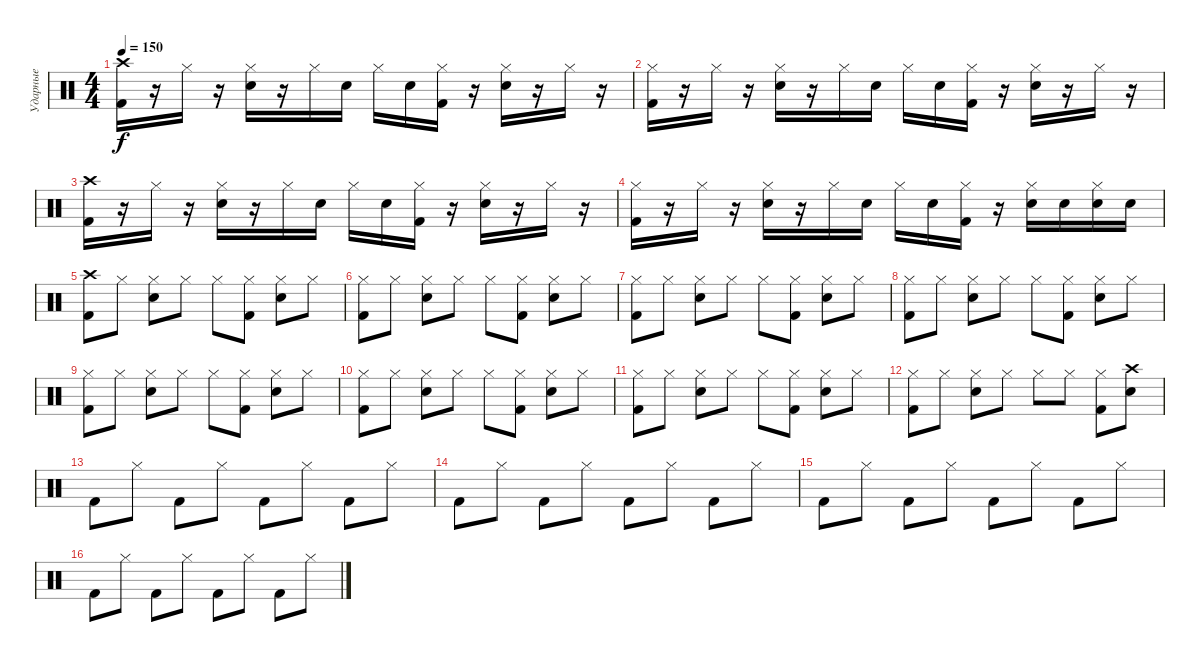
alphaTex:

\track ("Ударные" "Ударные") {instrument percussion}
\staff {score}
\articulation defaults
\ts (4 4)
\tempo 150
\clef neutral
\ks c
("Kick (hit) 2" "Crash high (hit)").16{dy f} r.16 "Hi-Hat (closed)".16 r.16 ("Electric Snare (hit)" "Hi-Hat (closed)").16 r.16 "Hi-Hat (closed)".16 "Electric Snare (hit)".16 "Hi-Hat (closed)".16 "Electric Snare (hit)".16 ("Kick (hit) 2" "Hi-Hat (closed)").16 r.16 ("Electric Snare (hit)" "Hi-Hat (closed)").16 r.16 "Hi-Hat (closed)".16 r.16 |
("Kick (hit) 2" "Hi-Hat (closed)").16 r.16 "Hi-Hat (closed)".16 r.16 ("Electric Snare (hit)" "Hi-Hat (closed)").16 r.16 "Hi-Hat (closed)".16 "Electric Snare (hit)".16 "Hi-Hat (closed)".16 "Electric Snare (hit)".16 ("Kick (hit) 2" "Hi-Hat (closed)").16 r.16 ("Electric Snare (hit)" "Hi-Hat (closed)").16 r.16 "Hi-Hat (closed)".16 r.16 |
("Kick (hit) 2" "Crash high (hit)").16 r.16 "Hi-Hat (closed)".16 r.16 ("Electric Snare (hit)" "Hi-Hat (closed)").16 r.16 "Hi-Hat (closed)".16 "Electric Snare (hit)".16 "Hi-Hat (closed)".16 "Electric Snare (hit)".16 ("Kick (hit) 2" "Hi-Hat (closed)").16 r.16 ("Electric Snare (hit)" "Hi-Hat (closed)").16 r.16 "Hi-Hat (closed)".16 r.16 |
("Kick (hit) 2" "Hi-Hat (closed)").16 r.16 "Hi-Hat (closed)".16 r.16 ("Electric Snare (hit)" "Hi-Hat (closed)").16 r.16 "Hi-Hat (closed)".16 "Electric Snare (hit)".16 "Hi-Hat (closed)".16 "Electric Snare (hit)".16 ("Kick (hit) 2" "Hi-Hat (closed)").16 r.16 ("Electric Snare (hit)" "Hi-Hat (closed)").16 "Electric Snare (hit)".16 ("Electric Snare (hit)" "Hi-Hat (closed)").16 "Electric Snare (hit)".16 |
("Kick (hit) 2" "Crash high (hit)").8 "Hi-Hat (closed)".8 ("Electric Snare (hit)" "Hi-Hat (closed)").8 "Hi-Hat (closed)".8 "Hi-Hat (closed)".8 ("Kick (hit) 2" "Hi-Hat (closed)").8 ("Electric Snare (hit)" "Hi-Hat (closed)").8 "Hi-Hat (closed)".8 |
("Kick (hit) 2" "Hi-Hat (closed)").8 "Hi-Hat (closed)".8 ("Electric Snare (hit)" "Hi-Hat (closed)").8 "Hi-Hat (closed)".8 "Hi-Hat (closed)".8 ("Kick (hit) 2" "Hi-Hat (closed)").8 ("Electric Snare (hit)" "Hi-Hat (closed)").8 "Hi-Hat (closed)".8 |
("Kick (hit) 2" "Hi-Hat (closed)").8 "Hi-Hat (closed)".8 ("Electric Snare (hit)" "Hi-Hat (closed)").8 "Hi-Hat (closed)".8 "Hi-Hat (closed)".8 ("Kick (hit) 2" "Hi-Hat (closed)").8 ("Electric Snare (hit)" "Hi-Hat (closed)").8 "Hi-Hat (closed)".8 |
("Kick (hit) 2" "Hi-Hat (closed)").8 "Hi-Hat (closed)".8 ("Electric Snare (hit)" "Hi-Hat (closed)").8 "Hi-Hat (closed)".8 "Hi-Hat (closed)".8 ("Kick (hit) 2" "Hi-Hat (closed)").8 ("Electric Snare (hit)" "Hi-Hat (closed)").8 "Hi-Hat (closed)".8 |
("Kick (hit) 2" "Hi-Hat (closed)").8 "Hi-Hat (closed)".8 ("Electric Snare (hit)" "Hi-Hat (closed)").8 "Hi-Hat (closed)".8 "Hi-Hat (closed)".8 ("Kick (hit) 2" "Hi-Hat (closed)").8 ("Electric Snare (hit)" "Hi-Hat (closed)").8 "Hi-Hat (closed)".8 |
("Kick (hit) 2" "Hi-Hat (closed)").8 "Hi-Hat (closed)".8 ("Electric Snare (hit)" "Hi-Hat (closed)").8 "Hi-Hat (closed)".8 "Hi-Hat (closed)".8 ("Kick (hit) 2" "Hi-Hat (closed)").8 ("Electric Snare (hit)" "Hi-Hat (closed)").8 "Hi-Hat (closed)".8 |
("Kick (hit) 2" "Hi-Hat (closed)").8 "Hi-Hat (closed)".8 ("Electric Snare (hit)" "Hi-Hat (closed)").8 "Hi-Hat (closed)".8 "Hi-Hat (closed)".8 ("Kick (hit) 2" "Hi-Hat (closed)").8 ("Electric Snare (hit)" "Hi-Hat (closed)").8 "Hi-Hat (closed)".8 |
("Kick (hit) 2" "Hi-Hat (closed)").8 "Hi-Hat (closed)".8 ("Electric Snare (hit)" "Hi-Hat (closed)").8 "Hi-Hat (closed)".8 "Hi-Hat (closed)".8 "Hi-Hat (closed)".8 ("Kick (hit) 2" "Hi-Hat (closed)").8 ("Electric Snare (hit)" "Crash high (hit)").8 |
"Kick (hit) 2".8 "Hi-Hat (closed)".8 "Kick (hit) 2".8 "Hi-Hat (closed)".8 "Kick (hit) 2".8 "Hi-Hat (closed)".8 "Kick (hit) 2".8 "Hi-Hat (closed)".8 |
"Kick (hit) 2".8 "Hi-Hat (closed)".8 "Kick (hit) 2".8 "Hi-Hat (closed)".8 "Kick (hit) 2".8 "Hi-Hat (closed)".8 "Kick (hit) 2".8 "Hi-Hat (closed)".8 |
"Kick (hit) 2".8 "Hi-Hat (closed)".8 "Kick (hit) 2".8 "Hi-Hat (closed)".8 "Kick (hit) 2".8 "Hi-Hat (closed)".8 "Kick (hit) 2".8 "Hi-Hat (closed)".8 |
"Kick (hit) 2".8 "Hi-Hat (closed)".8 "Kick (hit) 2".8 "Hi-Hat (closed)".8 "Kick (hit) 2".8 "Hi-Hat (closed)".8 "Kick (hit) 2".8 "Hi-Hat (closed)".8
